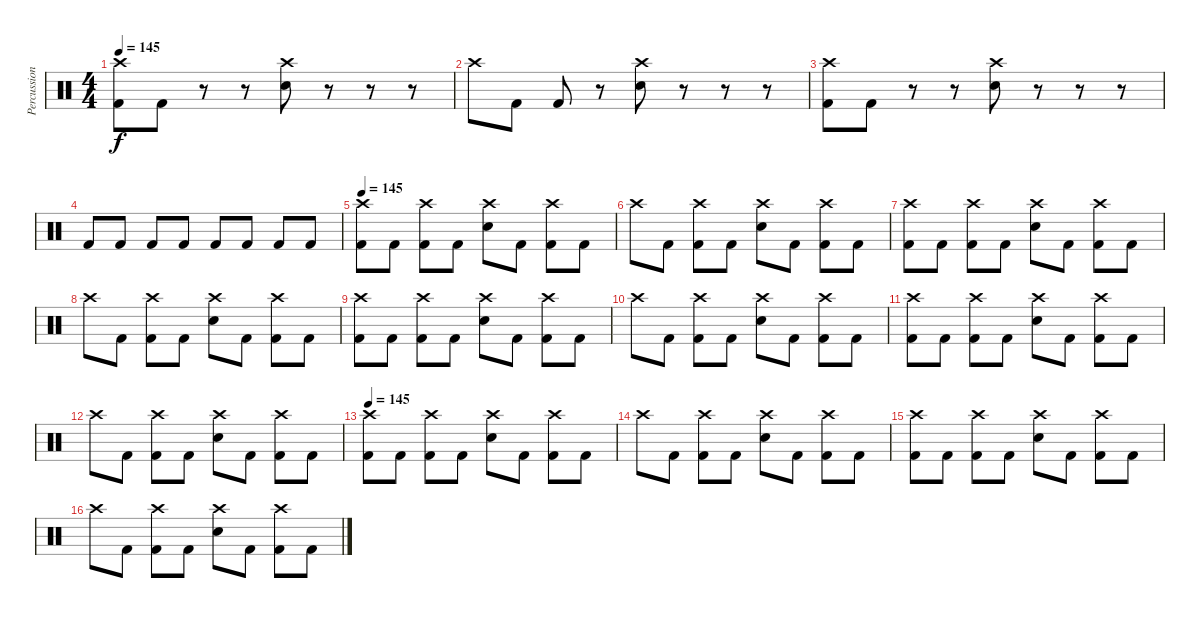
\track ("Percussion" "Percussion") {instrument percussion}
\staff {score}
\articulation defaults
\ts (4 4)
\tempo 145
\clef neutral
\ks c
("Crash high (hit)" "Kick (hit) 2").8{dy f} "Kick (hit) 2".8 r.8 r.8 ("Crash high (hit)" "Snare (hit) 2").8 r.8 r.8 r.8 |
"Crash high (hit)".8 "Kick (hit) 2".8 "Kick (hit) 2".8 r.8 ("Crash high (hit)" "Snare (hit) 2").8 r.8 r.8 r.8 |
("Crash high (hit)" "Kick (hit) 2").8 "Kick (hit) 2".8 r.8 r.8 ("Crash high (hit)" "Snare (hit) 2").8 r.8 r.8 r.8 |
"Kick (hit) 2".8 "Kick (hit) 2".8 "Kick (hit) 2".8 "Kick (hit) 2".8 "Kick (hit) 2".8 "Kick (hit) 2".8 "Kick (hit) 2".8 "Kick (hit) 2".8 |
\tempo 145
("Crash high (hit)" "Kick (hit) 2").8 "Kick (hit) 2".8 ("Crash high (hit)" "Kick (hit) 2").8 "Kick (hit) 2".8 ("Crash high (hit)" "Snare (hit) 2").8 "Kick (hit) 2".8 ("Crash high (hit)" "Kick (hit) 2").8 "Kick (hit) 2".8 |
"Crash high (hit)".8 "Kick (hit) 2".8 ("Crash high (hit)" "Kick (hit) 2").8 "Kick (hit) 2".8 ("Crash high (hit)" "Snare (hit) 2").8 "Kick (hit) 2".8 ("Crash high (hit)" "Kick (hit) 2").8 "Kick (hit) 2".8 |
("Crash high (hit)" "Kick (hit) 2").8 "Kick (hit) 2".8 ("Crash high (hit)" "Kick (hit) 2").8 "Kick (hit) 2".8 ("Crash high (hit)" "Snare (hit) 2").8 "Kick (hit) 2".8 ("Crash high (hit)" "Kick (hit) 2").8 "Kick (hit) 2".8 |
"Crash high (hit)".8 "Kick (hit) 2".8 ("Crash high (hit)" "Kick (hit) 2").8 "Kick (hit) 2".8 ("Crash high (hit)" "Snare (hit) 2").8 "Kick (hit) 2".8 ("Crash high (hit)" "Kick (hit) 2").8 "Kick (hit) 2".8 |
("Crash high (hit)" "Kick (hit) 2").8 "Kick (hit) 2".8 ("Crash high (hit)" "Kick (hit) 2").8 "Kick (hit) 2".8 ("Crash high (hit)" "Snare (hit) 2").8 "Kick (hit) 2".8 ("Crash high (hit)" "Kick (hit) 2").8 "Kick (hit) 2".8 |
"Crash high (hit)".8 "Kick (hit) 2".8 ("Crash high (hit)" "Kick (hit) 2").8 "Kick (hit) 2".8 ("Crash high (hit)" "Snare (hit) 2").8 "Kick (hit) 2".8 ("Crash high (hit)" "Kick (hit) 2").8 "Kick (hit) 2".8 |
("Crash high (hit)" "Kick (hit) 2").8 "Kick (hit) 2".8 ("Crash high (hit)" "Kick (hit) 2").8 "Kick (hit) 2".8 ("Crash high (hit)" "Snare (hit) 2").8 "Kick (hit) 2".8 ("Crash high (hit)" "Kick (hit) 2").8 "Kick (hit) 2".8 |
"Crash high (hit)".8 "Kick (hit) 2".8 ("Crash high (hit)" "Kick (hit) 2").8 "Kick (hit) 2".8 ("Crash high (hit)" "Snare (hit) 2").8 "Kick (hit) 2".8 ("Crash high (hit)" "Kick (hit) 2").8 "Kick (hit) 2".8 |
\tempo 145
("Crash high (hit)" "Kick (hit) 2").8 "Kick (hit) 2".8 ("Crash high (hit)" "Kick (hit) 2").8 "Kick (hit) 2".8 ("Crash high (hit)" "Snare (hit) 2").8 "Kick (hit) 2".8 ("Crash high (hit)" "Kick (hit) 2").8 "Kick (hit) 2".8 |
"Crash high (hit)".8 "Kick (hit) 2".8 ("Crash high (hit)" "Kick (hit) 2").8 "Kick (hit) 2".8 ("Crash high (hit)" "Snare (hit) 2").8 "Kick (hit) 2".8 ("Crash high (hit)" "Kick (hit) 2").8 "Kick (hit) 2".8 |
("Crash high (hit)" "Kick (hit) 2").8 "Kick (hit) 2".8 ("Crash high (hit)" "Kick (hit) 2").8 "Kick (hit) 2".8 ("Crash high (hit)" "Snare (hit) 2").8 "Kick (hit) 2".8 ("Crash high (hit)" "Kick (hit) 2").8 "Kick (hit) 2".8 |
"Crash high (hit)".8 "Kick (hit) 2".8 ("Crash high (hit)" "Kick (hit) 2").8 "Kick (hit) 2".8 ("Crash high (hit)" "Snare (hit) 2").8 "Kick (hit) 2".8 ("Crash high (hit)" "Kick (hit) 2").8 "Kick (hit) 2".8
